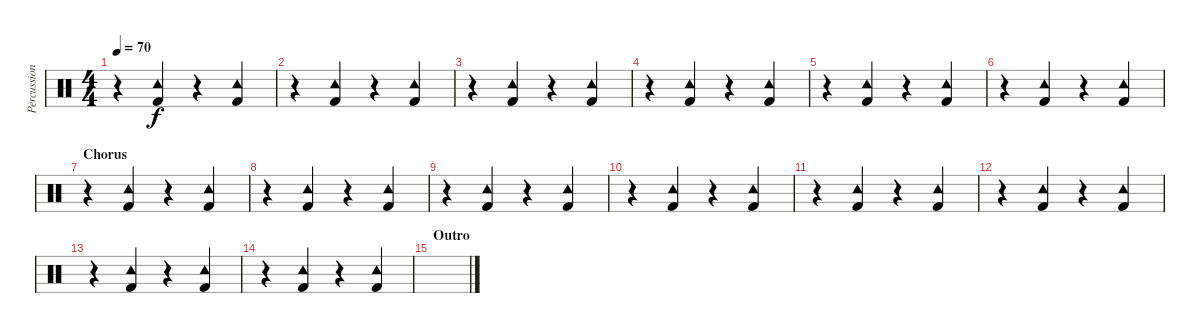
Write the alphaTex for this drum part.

\track ("Percussion" "Percussion") {instrument percussion}
\staff {score}
\articulation defaults
\ts (4 4)
\tempo 70
\clef neutral
\ks c
r.4{dy f} ("Tambourine (hit)" "Kick (hit) 2").4 r.4 ("Tambourine (hit)" "Kick (hit) 2").4 |
r.4 ("Tambourine (hit)" "Kick (hit) 2").4 r.4 ("Tambourine (hit)" "Kick (hit) 2").4 |
r.4 ("Tambourine (hit)" "Kick (hit) 2").4 r.4 ("Tambourine (hit)" "Kick (hit) 2").4 |
r.4 ("Tambourine (hit)" "Kick (hit) 2").4 r.4 ("Tambourine (hit)" "Kick (hit) 2").4 |
r.4 ("Tambourine (hit)" "Kick (hit) 2").4 r.4 ("Tambourine (hit)" "Kick (hit) 2").4 |
r.4 ("Tambourine (hit)" "Kick (hit) 2").4 r.4 ("Tambourine (hit)" "Kick (hit) 2").4 |
\section ("" "Chorus")
r.4 ("Tambourine (hit)" "Kick (hit) 2").4 r.4 ("Tambourine (hit)" "Kick (hit) 2").4 |
r.4 ("Tambourine (hit)" "Kick (hit) 2").4 r.4 ("Tambourine (hit)" "Kick (hit) 2").4 |
r.4 ("Tambourine (hit)" "Kick (hit) 2").4 r.4 ("Tambourine (hit)" "Kick (hit) 2").4 |
r.4 ("Tambourine (hit)" "Kick (hit) 2").4 r.4 ("Tambourine (hit)" "Kick (hit) 2").4 |
r.4 ("Tambourine (hit)" "Kick (hit) 2").4 r.4 ("Tambourine (hit)" "Kick (hit) 2").4 |
r.4 ("Tambourine (hit)" "Kick (hit) 2").4 r.4 ("Tambourine (hit)" "Kick (hit) 2").4 |
r.4 ("Tambourine (hit)" "Kick (hit) 2").4 r.4 ("Tambourine (hit)" "Kick (hit) 2").4 |
r.4 ("Tambourine (hit)" "Kick (hit) 2").4 r.4 ("Tambourine (hit)" "Kick (hit) 2").4 |
\section ("" "Outro")
